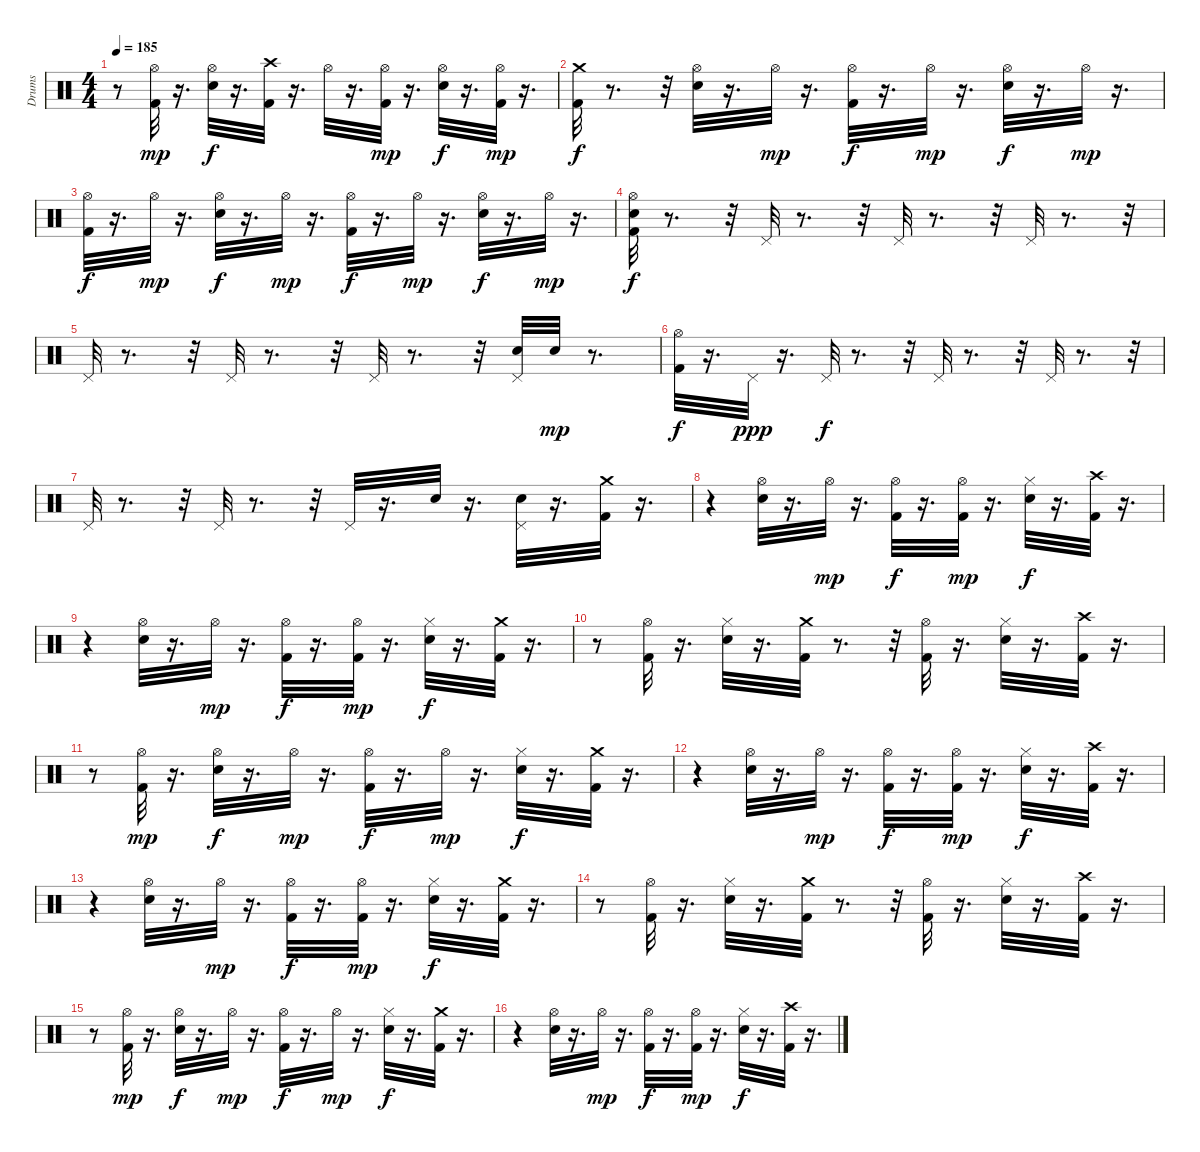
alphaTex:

\track ("Drums" "Drums") {instrument percussion}
\staff {score}
\articulation defaults
\ts (4 4)
\tempo 185
\clef neutral
\ks c
r.8{dy f} ("Hi-Hat (open)" "Kick (hit) 2").32{dy mp} r.16{d} ("Hi-Hat (open)" "Electric Snare (hit)").32{dy f} r.16{d} ("Crash high (hit)" "Kick (hit) 2").32 r.16{d} "Hi-Hat (open)".32 r.16{d} ("Hi-Hat (open)" "Kick (hit) 2").32{dy mp} r.16{d} ("Hi-Hat (open)" "Electric Snare (hit)").32{dy f} r.16{d} ("Hi-Hat (open)" "Kick (hit) 2").32{dy mp} r.16{d} |
("Crash medium (hit)" "Kick (hit) 2").32{dy f} r.8{d} r.32 ("Hi-Hat (open)" "Electric Snare (hit)").32 r.16{d} "Hi-Hat (open)".32{dy mp} r.16{d} ("Hi-Hat (open)" "Kick (hit) 2").32{dy f} r.16{d} "Hi-Hat (open)".32{dy mp} r.16{d} ("Hi-Hat (open)" "Electric Snare (hit)").32{dy f} r.16{d} "Hi-Hat (open)".32{dy mp} r.16{d} |
("Hi-Hat (open)" "Kick (hit) 2").32{dy f} r.16{d} "Hi-Hat (open)".32{dy mp} r.16{d} ("Hi-Hat (open)" "Electric Snare (hit)").32{dy f} r.16{d} "Hi-Hat (open)".32{dy mp} r.16{d} ("Hi-Hat (open)" "Kick (hit) 2").32{dy f} r.16{d} "Hi-Hat (open)".32{dy mp} r.16{d} ("Hi-Hat (open)" "Electric Snare (hit)").32{dy f} r.16{d} "Hi-Hat (open)".32{dy mp} r.16{d} |
("Electric Snare (hit)" "Hi-Hat (open)" "Kick (hit) 2").32{dy f} r.8{d} r.32 "Pedal Hi-Hat (hit)".32 r.8{d} r.32 "Pedal Hi-Hat (hit)".32 r.8{d} r.32 "Pedal Hi-Hat (hit)".32 r.8{d} r.32 |
"Pedal Hi-Hat (hit)".32 r.8{d} r.32 "Pedal Hi-Hat (hit)".32 r.8{d} r.32 "Pedal Hi-Hat (hit)".32 r.8{d} r.32 ("Electric Snare (hit)" "Pedal Hi-Hat (hit)").32 "Snare (hit) 2".32{dy mp} r.8{d} |
("Hi-Hat (open)" "Kick (hit) 2").32{dy f} r.16{d} "Pedal Hi-Hat (hit)".32{dy ppp} r.16{d} "Pedal Hi-Hat (hit)".32{dy f} r.8{d} r.32 "Pedal Hi-Hat (hit)".32 r.8{d} r.32 "Pedal Hi-Hat (hit)".32 r.8{d} r.32 |
"Pedal Hi-Hat (hit)".32 r.8{d} r.32 "Pedal Hi-Hat (hit)".32 r.8{d} r.32 "Pedal Hi-Hat (hit)".32 r.16{d} "Electric Snare (hit)".32 r.16{d} ("Electric Snare (hit)" "Pedal Hi-Hat (hit)").32 r.16{d} ("Crash medium (hit)" "Kick (hit) 2").32 r.16{d} |
r.4 ("Electric Snare (hit)" "Hi-Hat (open)").32 r.16{d} "Hi-Hat (open)".32{dy mp} r.16{d} ("Hi-Hat (open)" "Kick (hit) 2").32{dy f} r.16{d} ("Kick (hit) 2" "Hi-Hat (open)").32{dy mp} r.16{d} ("Hi-Hat (closed)" "Electric Snare (hit)").32{dy f} r.16{d} ("Crash high (hit)" "Kick (hit) 2").32 r.16{d} |
r.4 ("Hi-Hat (open)" "Electric Snare (hit)").32 r.16{d} "Hi-Hat (open)".32{dy mp} r.16{d} ("Hi-Hat (open)" "Kick (hit) 2").32{dy f} r.16{d} ("Hi-Hat (open)" "Kick (hit) 2").32{dy mp} r.16{d} ("Electric Snare (hit)" "Hi-Hat (closed)").32{dy f} r.16{d} ("Crash medium (hit)" "Kick (hit) 2").32 r.16{d} |
r.8 ("Kick (hit) 2" "Hi-Hat (open)").32 r.16{d} ("Hi-Hat (closed)" "Electric Snare (hit)").32 r.16{d} ("Crash medium (hit)" "Kick (hit) 2").32 r.8{d} r.32 ("Kick (hit) 2" "Hi-Hat (open)").32 r.16{d} ("Hi-Hat (closed)" "Electric Snare (hit)").32 r.16{d} ("Crash high (hit)" "Kick (hit) 2").32 r.16{d} |
r.8 ("Hi-Hat (open)" "Kick (hit) 2").32{dy mp} r.16{d} ("Hi-Hat (open)" "Electric Snare (hit)").32{dy f} r.16{d} "Hi-Hat (open)".32{dy mp} r.16{d} ("Hi-Hat (open)" "Kick (hit) 2").32{dy f} r.16{d} "Hi-Hat (open)".32{dy mp} r.16{d} ("Hi-Hat (closed)" "Electric Snare (hit)").32{dy f} r.16{d} ("Crash medium (hit)" "Kick (hit) 2").32 r.16{d} |
r.4 ("Electric Snare (hit)" "Hi-Hat (open)").32 r.16{d} "Hi-Hat (open)".32{dy mp} r.16{d} ("Hi-Hat (open)" "Kick (hit) 2").32{dy f} r.16{d} ("Kick (hit) 2" "Hi-Hat (open)").32{dy mp} r.16{d} ("Hi-Hat (closed)" "Electric Snare (hit)").32{dy f} r.16{d} ("Crash high (hit)" "Kick (hit) 2").32 r.16{d} |
r.4 ("Hi-Hat (open)" "Electric Snare (hit)").32 r.16{d} "Hi-Hat (open)".32{dy mp} r.16{d} ("Hi-Hat (open)" "Kick (hit) 2").32{dy f} r.16{d} ("Hi-Hat (open)" "Kick (hit) 2").32{dy mp} r.16{d} ("Electric Snare (hit)" "Hi-Hat (closed)").32{dy f} r.16{d} ("Crash medium (hit)" "Kick (hit) 2").32 r.16{d} |
r.8 ("Kick (hit) 2" "Hi-Hat (open)").32 r.16{d} ("Hi-Hat (closed)" "Electric Snare (hit)").32 r.16{d} ("Crash medium (hit)" "Kick (hit) 2").32 r.8{d} r.32 ("Kick (hit) 2" "Hi-Hat (open)").32 r.16{d} ("Hi-Hat (closed)" "Electric Snare (hit)").32 r.16{d} ("Crash high (hit)" "Kick (hit) 2").32 r.16{d} |
r.8 ("Hi-Hat (open)" "Kick (hit) 2").32{dy mp} r.16{d} ("Hi-Hat (open)" "Electric Snare (hit)").32{dy f} r.16{d} "Hi-Hat (open)".32{dy mp} r.16{d} ("Hi-Hat (open)" "Kick (hit) 2").32{dy f} r.16{d} "Hi-Hat (open)".32{dy mp} r.16{d} ("Hi-Hat (closed)" "Electric Snare (hit)").32{dy f} r.16{d} ("Crash medium (hit)" "Kick (hit) 2").32 r.16{d} |
r.4 ("Electric Snare (hit)" "Hi-Hat (open)").32 r.16{d} "Hi-Hat (open)".32{dy mp} r.16{d} ("Hi-Hat (open)" "Kick (hit) 2").32{dy f} r.16{d} ("Kick (hit) 2" "Hi-Hat (open)").32{dy mp} r.16{d} ("Hi-Hat (closed)" "Electric Snare (hit)").32{dy f} r.16{d} ("Crash high (hit)" "Kick (hit) 2").32 r.16{d}
